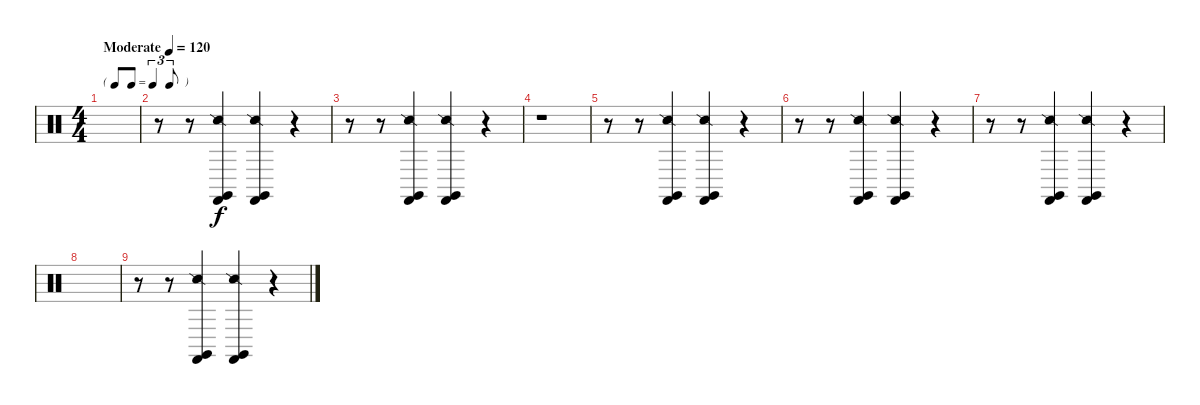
\track "" {instrument percussion}
\staff {score}
\articulation defaults
\ts (4 4)
\tf triplet8th
\tempo (120 "Moderate")
\clef neutral
\ks c
|
r.8 r.8 ("Snare (side stick) 2" "Castanets (hit)" "Claves (hit)").4 ("Snare (side stick) 2" "Castanets (hit)" "Claves (hit)").4 r.4 |
r.8 r.8 ("Snare (side stick) 2" "Castanets (hit)" "Claves (hit)").4 ("Snare (side stick) 2" "Castanets (hit)" "Claves (hit)").4 r.4 |
r.1 |
r.8 r.8 ("Snare (side stick) 2" "Castanets (hit)" "Claves (hit)").4 ("Snare (side stick) 2" "Castanets (hit)" "Claves (hit)").4 r.4 |
r.8 r.8 ("Snare (side stick) 2" "Castanets (hit)" "Claves (hit)").4 ("Snare (side stick) 2" "Castanets (hit)" "Claves (hit)").4 r.4 |
r.8 r.8 ("Snare (side stick) 2" "Castanets (hit)" "Claves (hit)").4 ("Snare (side stick) 2" "Castanets (hit)" "Claves (hit)").4 r.4 |
|
r.8 r.8 ("Snare (side stick) 2" "Castanets (hit)" "Claves (hit)").4 ("Snare (side stick) 2" "Castanets (hit)" "Claves (hit)").4 r.4
